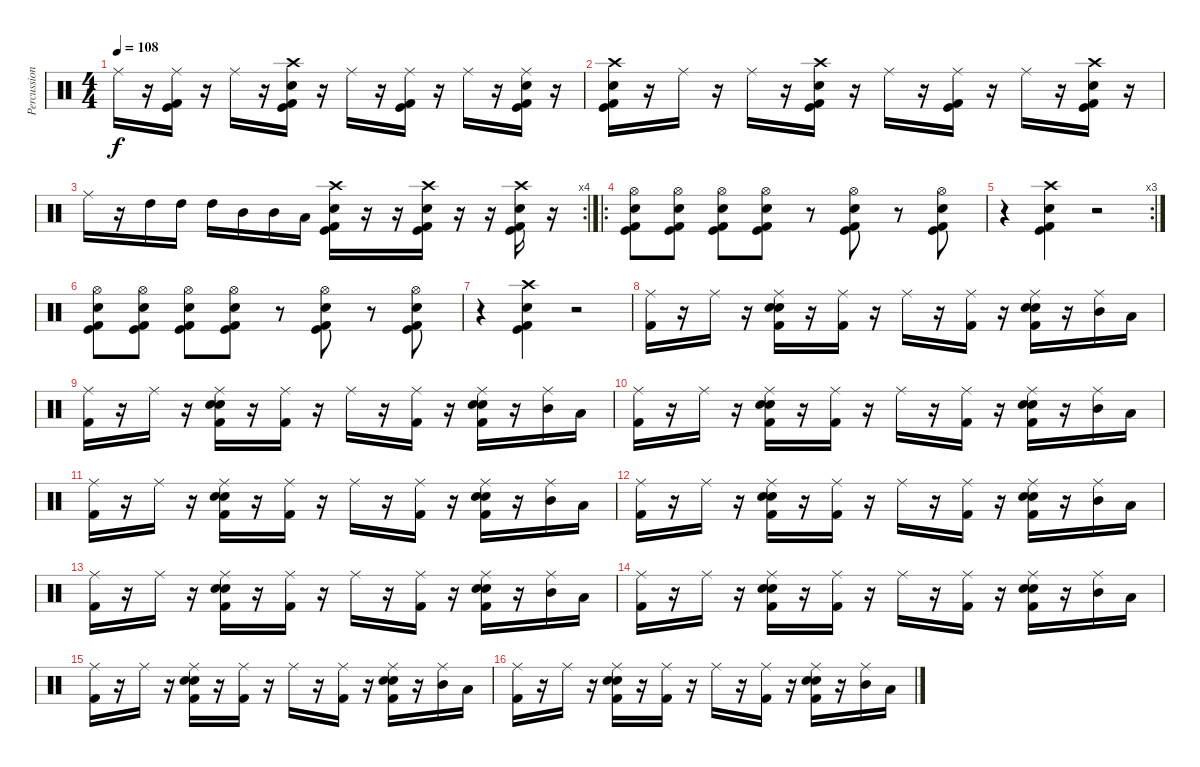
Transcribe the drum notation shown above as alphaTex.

\track ("Percussions" "Percussion") {instrument percussion}
\staff {score}
\articulation defaults
\ts (4 4)
\tempo 108
\clef neutral
\ks c "Ride (middle)".16{dy f}
r.16 ("Kick (hit) 2" "Kick (hit)" "Ride (middle)").16 r.16 "Ride (middle)".16 r.16 ("Kick (hit) 2" "Snare (hit) 2" "Kick (hit)" "Crash high (hit)").16 r.16 "Ride (middle)".16 r.16 ("Kick (hit) 2" "Kick (hit)" "Ride (middle)").16 r.16 "Ride (middle)".16 r.16 ("Kick (hit) 2" "Snare (hit) 2" "Ride (middle)" "Kick (hit)").16 r.16 |
("Kick (hit) 2" "Snare (hit) 2" "Kick (hit)" "Crash high (hit)").16 r.16 "Ride (middle)".16 r.16 "Ride (middle)".16 r.16 ("Kick (hit) 2" "Snare (hit) 2" "Kick (hit)" "Crash high (hit)").16 r.16 "Ride (middle)".16 r.16 ("Kick (hit) 2" "Kick (hit)" "Ride (middle)").16 r.16 "Ride (middle)".16 r.16 ("Kick (hit) 2" "Snare (hit) 2" "Kick (hit)" "Crash high (hit)").16 r.16 |
\rc 4 "Ride (middle)".16
r.16 "High Tom (hit)".16 "High Tom (hit)".16 "High Tom (hit)".16 "Mid Tom (hit)".16 "Mid Tom (hit)".16 "Low Tom (hit)".16 ("Kick (hit) 2" "Snare (hit) 2" "Kick (hit)" "Crash high (hit)").16 r.16 r.16 ("Kick (hit) 2" "Snare (hit) 2" "Kick (hit)" "Crash high (hit)").16 r.16 r.16 ("Kick (hit) 2" "Snare (hit) 2" "Kick (hit)" "Crash high (hit)").16 r.16 |
\ro
("Kick (hit)" "Kick (hit) 2" "Snare (hit) 2" "Hi-Hat (open)").8 ("Kick (hit)" "Kick (hit) 2" "Snare (hit) 2" "Hi-Hat (open)").8 ("Kick (hit)" "Kick (hit) 2" "Snare (hit) 2" "Hi-Hat (open)").8 ("Kick (hit)" "Kick (hit) 2" "Snare (hit) 2" "Hi-Hat (open)").8 r.8 ("Kick (hit)" "Kick (hit) 2" "Snare (hit) 2" "Hi-Hat (open)").8 r.8 ("Kick (hit)" "Kick (hit) 2" "Snare (hit) 2" "Hi-Hat (open)").8 |
\rc 3
r.4 ("Kick (hit)" "Kick (hit) 2" "Snare (hit) 2" "Crash high (hit)").4 r.2 |
("Kick (hit)" "Kick (hit) 2" "Snare (hit) 2" "Hi-Hat (open)").8 ("Kick (hit)" "Kick (hit) 2" "Snare (hit) 2" "Hi-Hat (open)").8 ("Kick (hit)" "Kick (hit) 2" "Snare (hit) 2" "Hi-Hat (open)").8 ("Kick (hit)" "Kick (hit) 2" "Snare (hit) 2" "Hi-Hat (open)").8 r.8 ("Kick (hit)" "Kick (hit) 2" "Snare (hit) 2" "Hi-Hat (open)").8 r.8 ("Kick (hit)" "Kick (hit) 2" "Snare (hit) 2" "Hi-Hat (open)").8 |
r.4 ("Kick (hit)" "Kick (hit) 2" "Snare (hit) 2" "Crash high (hit)").4 r.2 |
("Ride (middle)" "Kick (hit) 2").16 r.16 "Ride (middle)".16 r.16 ("Ride (middle)" "Kick (hit) 2" "Snare (hit) 2" "Electric Snare (hit)").16 r.16 ("Ride (middle)" "Kick (hit) 2").16 r.16 "Ride (middle)".16 r.16 ("Ride (middle)" "Kick (hit) 2").16 r.16 ("Ride (middle)" "Kick (hit) 2" "Snare (hit) 2" "Electric Snare (hit)").16 r.16 ("Ride (middle)" "Mid Tom (hit)").16 "Low Tom (hit)".16 |
("Ride (middle)" "Kick (hit) 2").16 r.16 "Ride (middle)".16 r.16 ("Ride (middle)" "Kick (hit) 2" "Snare (hit) 2" "Electric Snare (hit)").16 r.16 ("Ride (middle)" "Kick (hit) 2").16 r.16 "Ride (middle)".16 r.16 ("Ride (middle)" "Kick (hit) 2").16 r.16 ("Ride (middle)" "Kick (hit) 2" "Snare (hit) 2" "Electric Snare (hit)").16 r.16 ("Ride (middle)" "Mid Tom (hit)").16 "Low Tom (hit)".16 |
("Ride (middle)" "Kick (hit) 2").16 r.16 "Ride (middle)".16 r.16 ("Ride (middle)" "Kick (hit) 2" "Snare (hit) 2" "Electric Snare (hit)").16 r.16 ("Ride (middle)" "Kick (hit) 2").16 r.16 "Ride (middle)".16 r.16 ("Ride (middle)" "Kick (hit) 2").16 r.16 ("Ride (middle)" "Kick (hit) 2" "Snare (hit) 2" "Electric Snare (hit)").16 r.16 ("Ride (middle)" "Mid Tom (hit)").16 "Low Tom (hit)".16 |
("Ride (middle)" "Kick (hit) 2").16 r.16 "Ride (middle)".16 r.16 ("Ride (middle)" "Kick (hit) 2" "Snare (hit) 2" "Electric Snare (hit)").16 r.16 ("Ride (middle)" "Kick (hit) 2").16 r.16 "Ride (middle)".16 r.16 ("Ride (middle)" "Kick (hit) 2").16 r.16 ("Ride (middle)" "Kick (hit) 2" "Snare (hit) 2" "Electric Snare (hit)").16 r.16 ("Ride (middle)" "Mid Tom (hit)").16 "Low Tom (hit)".16 |
("Ride (middle)" "Kick (hit) 2").16 r.16 "Ride (middle)".16 r.16 ("Ride (middle)" "Kick (hit) 2" "Snare (hit) 2" "Electric Snare (hit)").16 r.16 ("Ride (middle)" "Kick (hit) 2").16 r.16 "Ride (middle)".16 r.16 ("Ride (middle)" "Kick (hit) 2").16 r.16 ("Ride (middle)" "Kick (hit) 2" "Snare (hit) 2" "Electric Snare (hit)").16 r.16 ("Ride (middle)" "Mid Tom (hit)").16 "Low Tom (hit)".16 |
("Ride (middle)" "Kick (hit) 2").16 r.16 "Ride (middle)".16 r.16 ("Ride (middle)" "Kick (hit) 2" "Snare (hit) 2" "Electric Snare (hit)").16 r.16 ("Ride (middle)" "Kick (hit) 2").16 r.16 "Ride (middle)".16 r.16 ("Ride (middle)" "Kick (hit) 2").16 r.16 ("Ride (middle)" "Kick (hit) 2" "Snare (hit) 2" "Electric Snare (hit)").16 r.16 ("Ride (middle)" "Mid Tom (hit)").16 "Low Tom (hit)".16 |
("Ride (middle)" "Kick (hit) 2").16 r.16 "Ride (middle)".16 r.16 ("Ride (middle)" "Kick (hit) 2" "Snare (hit) 2" "Electric Snare (hit)").16 r.16 ("Ride (middle)" "Kick (hit) 2").16 r.16 "Ride (middle)".16 r.16 ("Ride (middle)" "Kick (hit) 2").16 r.16 ("Ride (middle)" "Kick (hit) 2" "Snare (hit) 2" "Electric Snare (hit)").16 r.16 ("Ride (middle)" "Mid Tom (hit)").16 "Low Tom (hit)".16 |
("Ride (middle)" "Kick (hit) 2").16 r.16 "Ride (middle)".16 r.16 ("Ride (middle)" "Kick (hit) 2" "Snare (hit) 2" "Electric Snare (hit)").16 r.16 ("Ride (middle)" "Kick (hit) 2").16 r.16 "Ride (middle)".16 r.16 ("Ride (middle)" "Kick (hit) 2").16 r.16 ("Ride (middle)" "Kick (hit) 2" "Snare (hit) 2" "Electric Snare (hit)").16 r.16 ("Ride (middle)" "Mid Tom (hit)").16 "Low Tom (hit)".16 |
("Ride (middle)" "Kick (hit) 2").16 r.16 "Ride (middle)".16 r.16 ("Ride (middle)" "Kick (hit) 2" "Snare (hit) 2" "Electric Snare (hit)").16 r.16 ("Ride (middle)" "Kick (hit) 2").16 r.16 "Ride (middle)".16 r.16 ("Ride (middle)" "Kick (hit) 2").16 r.16 ("Ride (middle)" "Kick (hit) 2" "Snare (hit) 2" "Electric Snare (hit)").16 r.16 ("Ride (middle)" "Mid Tom (hit)").16 "Low Tom (hit)".16
